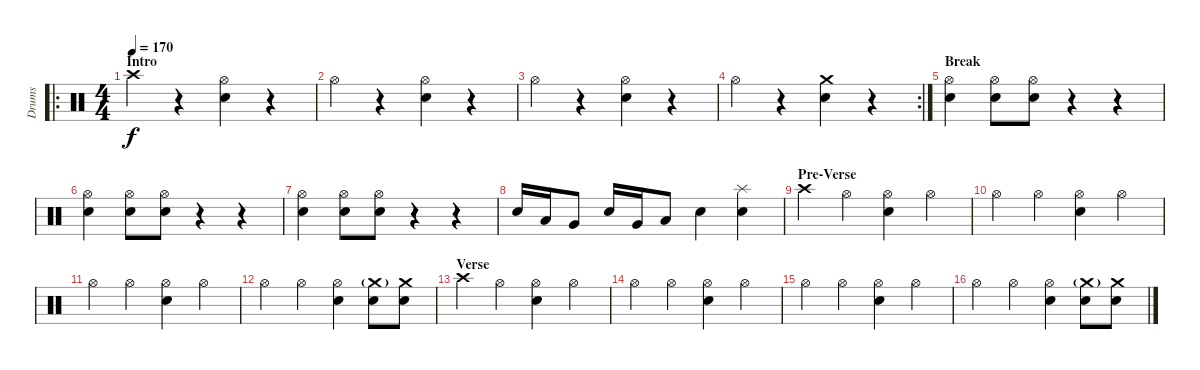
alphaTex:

\track ("Drums" "Drums") {instrument percussion}
\staff {score}
\articulation defaults
\ro
\ts (4 4)
\section ("" "Intro")
\tempo 170
\clef neutral
\ks c "Crash high (hit)".4{dy f}
r.4 ("Hi-Hat (open)" "Electric Snare (hit)").4 r.4 |
"Hi-Hat (open)".4 r.4 ("Hi-Hat (open)" "Electric Snare (hit)").4 r.4 |
"Hi-Hat (open)".4 r.4 ("Hi-Hat (open)" "Electric Snare (hit)").4 r.4 |
\rc 2 "Hi-Hat (open)".4
r.4 ("Crash medium (hit)" "Electric Snare (hit)").4 r.4 |
\section ("" "Break")
("Hi-Hat (open)" "Electric Snare (hit)").4 ("Hi-Hat (open)" "Electric Snare (hit)").8 ("Hi-Hat (open)" "Electric Snare (hit)").8 r.4 r.4 |
("Hi-Hat (open)" "Electric Snare (hit)").4 ("Hi-Hat (open)" "Electric Snare (hit)").8 ("Hi-Hat (open)" "Electric Snare (hit)").8 r.4 r.4 |
("Hi-Hat (open)" "Electric Snare (hit)").4 ("Hi-Hat (open)" "Electric Snare (hit)").8 ("Hi-Hat (open)" "Electric Snare (hit)").8 r.4 r.4 |
"Electric Snare (hit)".16 "Low Tom (hit)".16 "Very Low Tom (hit)".8 "Electric Snare (hit)".16 "Very Low Tom (hit)".16 "Low Floor Tom (hit)".8 "Electric Snare (hit)".4 ("Splash (hit)" "Electric Snare (hit)").4 |
\section ("" "Pre-Verse")
"Crash high (hit)".4 "Hi-Hat (open)".4 ("Hi-Hat (open)" "Electric Snare (hit)").4 "Hi-Hat (open)".4 |
"Hi-Hat (open)".4 "Hi-Hat (open)".4 ("Hi-Hat (open)" "Electric Snare (hit)").4 "Hi-Hat (open)".4 |
"Hi-Hat (open)".4 "Hi-Hat (open)".4 ("Hi-Hat (open)" "Electric Snare (hit)").4 "Hi-Hat (open)".4 |
"Hi-Hat (open)".4 "Hi-Hat (open)".4 ("Hi-Hat (open)" "Electric Snare (hit)").4 ("Crash medium (hit)"{g} "Electric Snare (hit)").8 ("Crash medium (hit)" "Electric Snare (hit)").8 |
\section ("" "Verse")
"Crash high (hit)".4 "Hi-Hat (open)".4 ("Hi-Hat (open)" "Electric Snare (hit)").4 "Hi-Hat (open)".4 |
"Hi-Hat (open)".4 "Hi-Hat (open)".4 ("Hi-Hat (open)" "Electric Snare (hit)").4 "Hi-Hat (open)".4 |
"Hi-Hat (open)".4 "Hi-Hat (open)".4 ("Hi-Hat (open)" "Electric Snare (hit)").4 "Hi-Hat (open)".4 |
"Hi-Hat (open)".4 "Hi-Hat (open)".4 ("Hi-Hat (open)" "Electric Snare (hit)").4 ("Crash medium (hit)"{g} "Electric Snare (hit)").8 ("Crash medium (hit)" "Electric Snare (hit)").8
